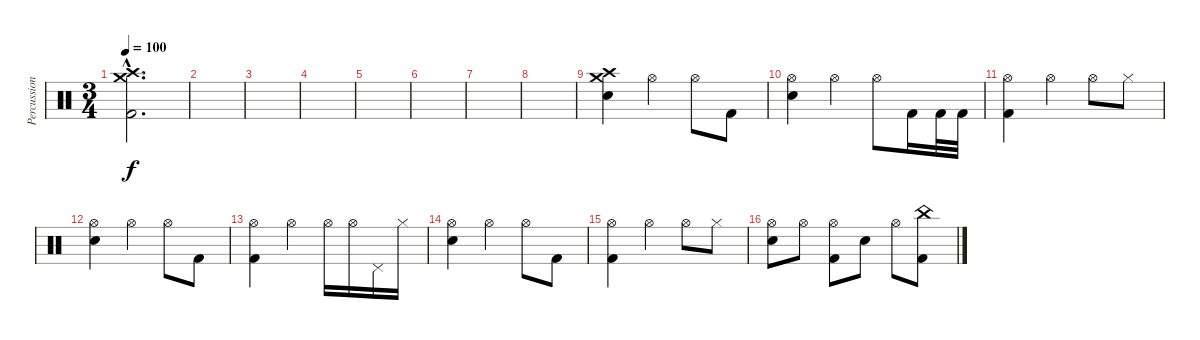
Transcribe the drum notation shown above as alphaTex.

\track ("Percussion" "Percussion") {instrument percussion}
\staff {score}
\articulation defaults
\ts (3 4)
\tempo 100
\clef neutral
\ks c
("Crash high (hit)"{hac} "Crash medium (hit)"{hac} "Kick (hit) 2"{hac}).2{d dy f} |
|
|
|
|
|
|
|
("Crash high (hit)" "Crash medium (hit)" "Hand Clap (hit)").4 "Hi-Hat (open)".4 "Hi-Hat (open)".8 "Kick (hit) 2".8 |
("Hi-Hat (open)" "Electric Snare (hit)").4 "Hi-Hat (open)".4 "Hi-Hat (open)".8 "Kick (hit) 2".16 "Kick (hit) 2".32 "Kick (hit) 2".32 |
("Hi-Hat (open)" "Kick (hit) 2").4 "Hi-Hat (open)".4 "Hi-Hat (open)".8 "Hi-Hat (closed)".8 |
("Hi-Hat (open)" "Electric Snare (hit)").4 "Hi-Hat (open)".4 "Hi-Hat (open)".8 "Kick (hit) 2".8 |
("Hi-Hat (open)" "Kick (hit) 2").4 "Hi-Hat (open)".4 "Hi-Hat (open)".16 "Hi-Hat (open)".16 "Pedal Hi-Hat (hit)".16 "Hi-Hat (closed)".16 |
("Hi-Hat (open)" "Electric Snare (hit)").4 "Hi-Hat (open)".4 "Hi-Hat (open)".8 "Kick (hit) 2".8 |
("Hi-Hat (open)" "Kick (hit) 2").4 "Hi-Hat (open)".4 "Hi-Hat (open)".8 "Hi-Hat (closed)".8 |
("Hi-Hat (open)" "Electric Snare (hit)").8 "Hi-Hat (open)".8 ("Hi-Hat (open)" "Kick (hit) 2").8 "Electric Snare (hit)".8 "Hi-Hat (open)".8 ("China (hit)" "Kick (hit) 2").8
